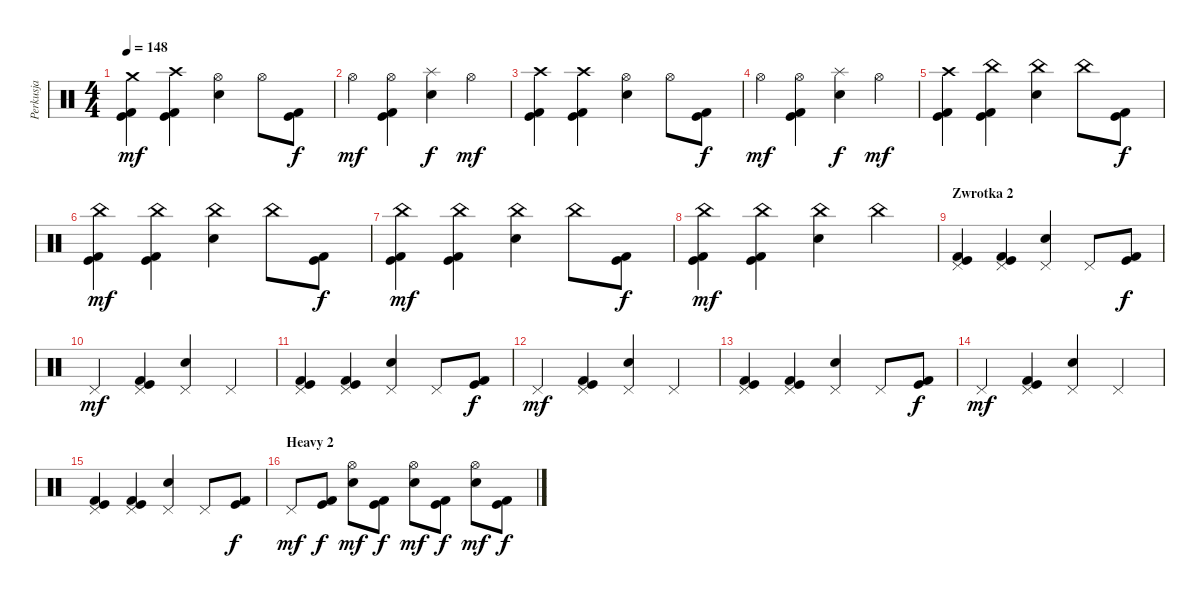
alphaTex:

\track ("Perkusja" "Perkusja") {instrument percussion}
\staff {score}
\articulation defaults
\ts (4 4)
\tempo 148
\clef neutral
\ks c
("Kick (hit) 2" "Kick (hit)" "Crash medium (hit)").4{dy mf} ("Kick (hit) 2" "Kick (hit)" "Crash high (hit)").4 ("Snare (hit) 2" "Hi-Hat (open)").4 "Hi-Hat (open)".8 ("Kick (hit) 2" "Kick (hit)").8{dy f} |
"Hi-Hat (open)".4{dy mf} ("Kick (hit)" "Kick (hit) 2" "Hi-Hat (open)").4 ("Snare (hit) 2" "Splash (hit)").4{dy f} "Hi-Hat (open)".4{dy mf} |
("Kick (hit) 2" "Kick (hit)" "Crash high (hit)").4 ("Kick (hit) 2" "Kick (hit)" "Crash high (hit)").4 ("Snare (hit) 2" "Hi-Hat (open)").4 "Hi-Hat (open)".8 ("Kick (hit) 2" "Kick (hit)").8{dy f} |
"Hi-Hat (open)".4{dy mf} ("Kick (hit)" "Kick (hit) 2" "Hi-Hat (open)").4 ("Snare (hit) 2" "Splash (hit)").4{dy f} "Hi-Hat (open)".4{dy mf} |
("Kick (hit) 2" "Kick (hit)" "Crash high (hit)").4 ("Kick (hit) 2" "Kick (hit)" "China (hit)").4 ("Snare (hit) 2" "China (hit)").4 "China (hit)".8 ("Kick (hit) 2" "Kick (hit)").8{dy f} |
("Kick (hit) 2" "Kick (hit)" "China (hit)").4{dy mf} ("Kick (hit) 2" "Kick (hit)" "China (hit)").4 ("Snare (hit) 2" "China (hit)").4 "China (hit)".8 ("Kick (hit) 2" "Kick (hit)").8{dy f} |
("Kick (hit) 2" "Kick (hit)" "China (hit)").4{dy mf} ("Kick (hit) 2" "Kick (hit)" "China (hit)").4 ("Snare (hit) 2" "China (hit)").4 "China (hit)".8 ("Kick (hit) 2" "Kick (hit)").8{dy f} |
("Kick (hit) 2" "Kick (hit)" "China (hit)").4{dy mf} ("Kick (hit) 2" "Kick (hit)" "China (hit)").4 ("Snare (hit) 2" "China (hit)").4 "China (hit)".4 |
\section ("" "Zwrotka 2")
("Kick (hit) 2" "Kick (hit)" "Pedal Hi-Hat (hit)").4 ("Kick (hit) 2" "Kick (hit)" "Pedal Hi-Hat (hit)").4 ("Snare (hit) 2" "Pedal Hi-Hat (hit)").4 "Pedal Hi-Hat (hit)".8 ("Kick (hit) 2" "Kick (hit)").8{dy f} |
"Pedal Hi-Hat (hit)".4{dy mf} ("Kick (hit)" "Kick (hit) 2" "Pedal Hi-Hat (hit)").4 ("Snare (hit) 2" "Pedal Hi-Hat (hit)").4 "Pedal Hi-Hat (hit)".4 |
("Kick (hit) 2" "Kick (hit)" "Pedal Hi-Hat (hit)").4 ("Kick (hit) 2" "Kick (hit)" "Pedal Hi-Hat (hit)").4 ("Snare (hit) 2" "Pedal Hi-Hat (hit)").4 "Pedal Hi-Hat (hit)".8 ("Kick (hit) 2" "Kick (hit)").8{dy f} |
"Pedal Hi-Hat (hit)".4{dy mf} ("Kick (hit)" "Kick (hit) 2" "Pedal Hi-Hat (hit)").4 ("Snare (hit) 2" "Pedal Hi-Hat (hit)").4 "Pedal Hi-Hat (hit)".4 |
("Kick (hit) 2" "Kick (hit)" "Pedal Hi-Hat (hit)").4 ("Kick (hit) 2" "Kick (hit)" "Pedal Hi-Hat (hit)").4 ("Snare (hit) 2" "Pedal Hi-Hat (hit)").4 "Pedal Hi-Hat (hit)".8 ("Kick (hit) 2" "Kick (hit)").8{dy f} |
"Pedal Hi-Hat (hit)".4{dy mf} ("Kick (hit)" "Kick (hit) 2" "Pedal Hi-Hat (hit)").4 ("Snare (hit) 2" "Pedal Hi-Hat (hit)").4 "Pedal Hi-Hat (hit)".4 |
("Kick (hit) 2" "Kick (hit)" "Pedal Hi-Hat (hit)").4 ("Kick (hit) 2" "Kick (hit)" "Pedal Hi-Hat (hit)").4 ("Snare (hit) 2" "Pedal Hi-Hat (hit)").4 "Pedal Hi-Hat (hit)".8 ("Kick (hit) 2" "Kick (hit)").8{dy f} |
\section ("" "Heavy 2")
"Pedal Hi-Hat (hit)".8{dy mf} ("Kick (hit)" "Kick (hit) 2").8{dy f} ("Snare (hit) 2" "Hi-Hat (open)").8{dy mf} ("Kick (hit) 2" "Kick (hit)").8{dy f} ("Snare (hit) 2" "Hi-Hat (open)").8{dy mf} ("Kick (hit) 2" "Kick (hit)").8{dy f} ("Snare (hit) 2" "Hi-Hat (open)").8{dy mf} ("Kick (hit) 2" "Kick (hit)").8{dy f}
